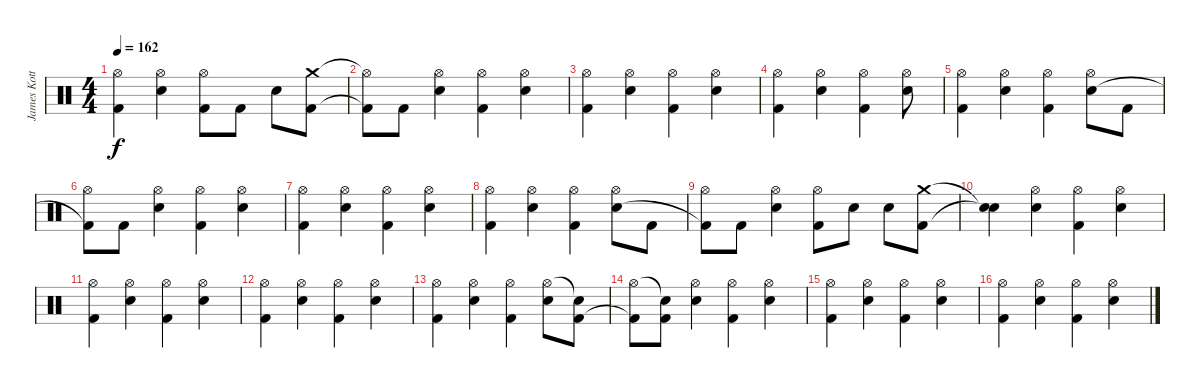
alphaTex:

\track ("James Kottak" "James Kott") {instrument percussion}
\staff {score}
\articulation defaults
\ts (4 4)
\tempo 162
\clef neutral
\ks c
("Hi-Hat (open)" "Kick (hit) 2").4{dy f} ("Hi-Hat (open)" "Snare (hit) 2").4 ("Hi-Hat (open)" "Kick (hit) 2").8 "Kick (hit) 2".8 "Snare (hit) 2".8 ("Crash medium (hit)" "Kick (hit) 2").8 |
("Hi-Hat (open)"{t} "Kick (hit) 2"{t}).8 "Kick (hit) 2".8 ("Hi-Hat (open)" "Snare (hit) 2").4 ("Hi-Hat (open)" "Kick (hit) 2").4 ("Hi-Hat (open)" "Snare (hit) 2").4 |
("Hi-Hat (open)" "Kick (hit) 2").4 ("Hi-Hat (open)" "Snare (hit) 2").4 ("Hi-Hat (open)" "Kick (hit) 2").4 ("Hi-Hat (open)" "Snare (hit) 2").4 |
("Hi-Hat (open)" "Kick (hit) 2").4 ("Hi-Hat (open)" "Snare (hit) 2").4 ("Hi-Hat (open)" "Kick (hit) 2").4 ("Hi-Hat (open)" "Snare (hit) 2").8 |
("Hi-Hat (open)" "Kick (hit) 2").4 ("Hi-Hat (open)" "Snare (hit) 2").4 ("Hi-Hat (open)" "Kick (hit) 2").4 ("Hi-Hat (open)" "Snare (hit) 2").8 "Kick (hit) 2".8 |
("Hi-Hat (open)" "Kick (hit) 2"{t}).8 "Kick (hit) 2".8 ("Hi-Hat (open)" "Snare (hit) 2").4 ("Hi-Hat (open)" "Kick (hit) 2").4 ("Hi-Hat (open)" "Snare (hit) 2").4 |
("Hi-Hat (open)" "Kick (hit) 2").4 ("Hi-Hat (open)" "Snare (hit) 2").4 ("Hi-Hat (open)" "Kick (hit) 2").4 ("Hi-Hat (open)" "Snare (hit) 2").4 |
("Hi-Hat (open)" "Kick (hit) 2").4 ("Hi-Hat (open)" "Snare (hit) 2").4 ("Hi-Hat (open)" "Kick (hit) 2").4 ("Hi-Hat (open)" "Snare (hit) 2").8 "Kick (hit) 2".8 |
("Hi-Hat (open)" "Kick (hit) 2"{t}).8 "Kick (hit) 2".8 ("Hi-Hat (open)" "Snare (hit) 2").4 ("Hi-Hat (open)" "Kick (hit) 2").8 "Snare (hit) 2".8 "Snare (hit) 2".8 ("Crash medium (hit)" "Kick (hit) 2").8 |
("Snare (hit)"{t} "Snare (hit)"{t}).4 ("Hi-Hat (open)" "Snare (hit) 2").4 ("Hi-Hat (open)" "Kick (hit) 2").4 ("Hi-Hat (open)" "Snare (hit) 2").4 |
("Hi-Hat (open)" "Kick (hit) 2").4 ("Hi-Hat (open)" "Snare (hit) 2").4 ("Hi-Hat (open)" "Kick (hit) 2").4 ("Hi-Hat (open)" "Snare (hit) 2").4 |
("Hi-Hat (open)" "Kick (hit) 2").4 ("Hi-Hat (open)" "Snare (hit) 2").4 ("Hi-Hat (open)" "Kick (hit) 2").4 ("Hi-Hat (open)" "Snare (hit) 2").4 |
("Hi-Hat (open)" "Kick (hit) 2").4 ("Hi-Hat (open)" "Snare (hit) 2").4 ("Hi-Hat (open)" "Kick (hit) 2").4 ("Hi-Hat (open)" "Snare (hit) 2").8 ("Snare (hit)"{t} "Kick (hit) 2").8 |
("Hi-Hat (open)" "Kick (hit) 2"{t}).8 ("Snare (hit)"{t} "Kick (hit) 2").8 ("Hi-Hat (open)" "Snare (hit) 2").4 ("Hi-Hat (open)" "Kick (hit) 2").4 ("Hi-Hat (open)" "Snare (hit) 2").4 |
("Hi-Hat (open)" "Kick (hit) 2").4 ("Hi-Hat (open)" "Snare (hit) 2").4 ("Hi-Hat (open)" "Kick (hit) 2").4 ("Hi-Hat (open)" "Snare (hit) 2").4 |
("Hi-Hat (open)" "Kick (hit) 2").4 ("Hi-Hat (open)" "Snare (hit) 2").4 ("Hi-Hat (open)" "Kick (hit) 2").4 ("Hi-Hat (open)" "Snare (hit) 2").4
